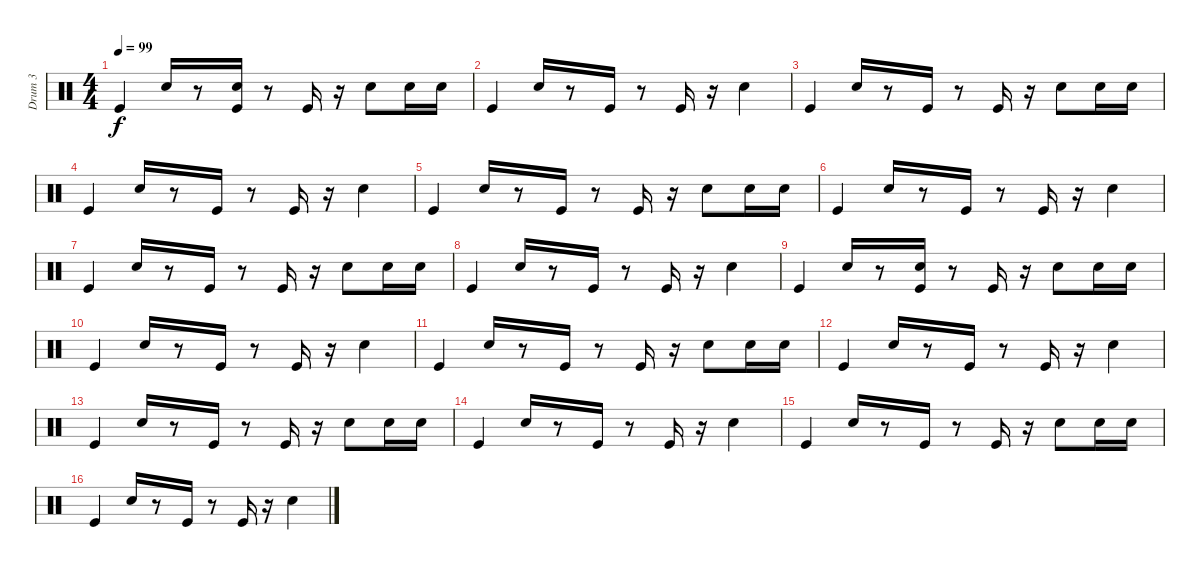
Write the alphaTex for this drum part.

\track ("Drum 3" "Drum 3") {instrument percussion}
\staff {score}
\articulation defaults
\ts (4 4)
\tempo 99
\clef neutral
\ks c "Kick (hit)".4{dy f} "Snare (hit) 2".16
r.8 ("Snare (hit) 2" "Kick (hit)").16 r.8 "Kick (hit)".16 r.16 "Snare (hit) 2".8 "Snare (hit) 2".16 "Snare (hit) 2".16 |
"Kick (hit)".4 "Snare (hit) 2".16 r.8 "Kick (hit)".16 r.8 "Kick (hit)".16 r.16 "Snare (hit) 2".4 |
"Kick (hit)".4 "Snare (hit) 2".16 r.8 "Kick (hit)".16 r.8 "Kick (hit)".16 r.16 "Snare (hit) 2".8 "Snare (hit) 2".16 "Snare (hit) 2".16 |
"Kick (hit)".4 "Snare (hit) 2".16 r.8 "Kick (hit)".16 r.8 "Kick (hit)".16 r.16 "Snare (hit) 2".4 |
"Kick (hit)".4 "Snare (hit) 2".16 r.8 "Kick (hit)".16 r.8 "Kick (hit)".16 r.16 "Snare (hit) 2".8 "Snare (hit) 2".16 "Snare (hit) 2".16 |
"Kick (hit)".4 "Snare (hit) 2".16 r.8 "Kick (hit)".16 r.8 "Kick (hit)".16 r.16 "Snare (hit) 2".4 |
"Kick (hit)".4 "Snare (hit) 2".16 r.8 "Kick (hit)".16 r.8 "Kick (hit)".16 r.16 "Snare (hit) 2".8 "Snare (hit) 2".16 "Snare (hit) 2".16 |
"Kick (hit)".4 "Snare (hit) 2".16 r.8 "Kick (hit)".16 r.8 "Kick (hit)".16 r.16 "Snare (hit) 2".4 |
"Kick (hit)".4 "Snare (hit) 2".16 r.8 ("Kick (hit)" "Snare (hit) 2").16 r.8 "Kick (hit)".16 r.16 "Snare (hit) 2".8 "Snare (hit) 2".16 "Snare (hit) 2".16 |
"Kick (hit)".4 "Snare (hit) 2".16 r.8 "Kick (hit)".16 r.8 "Kick (hit)".16 r.16 "Snare (hit) 2".4 |
"Kick (hit)".4 "Snare (hit) 2".16 r.8 "Kick (hit)".16 r.8 "Kick (hit)".16 r.16 "Snare (hit) 2".8 "Snare (hit) 2".16 "Snare (hit) 2".16 |
"Kick (hit)".4 "Snare (hit) 2".16 r.8 "Kick (hit)".16 r.8 "Kick (hit)".16 r.16 "Snare (hit) 2".4 |
"Kick (hit)".4 "Snare (hit) 2".16 r.8 "Kick (hit)".16 r.8 "Kick (hit)".16 r.16 "Snare (hit) 2".8 "Snare (hit) 2".16 "Snare (hit) 2".16 |
"Kick (hit)".4 "Snare (hit) 2".16 r.8 "Kick (hit)".16 r.8 "Kick (hit)".16 r.16 "Snare (hit) 2".4 |
"Kick (hit)".4 "Snare (hit) 2".16 r.8 "Kick (hit)".16 r.8 "Kick (hit)".16 r.16 "Snare (hit) 2".8 "Snare (hit) 2".16 "Snare (hit) 2".16 |
"Kick (hit)".4 "Snare (hit) 2".16 r.8 "Kick (hit)".16 r.8 "Kick (hit)".16 r.16 "Snare (hit) 2".4
